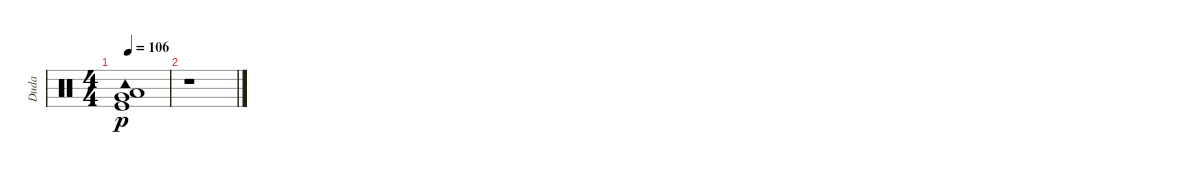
\track ("Duda" "Duda") {instrument percussion}
\staff {score}
\articulation defaults
\ts (4 4)
\tempo 106
\clef neutral
\ks c
("Tambourine (hit)" "Very Low Tom (hit)" "Low Floor Tom (hit)" "Kick (hit)").1{dy p} |
r.1
